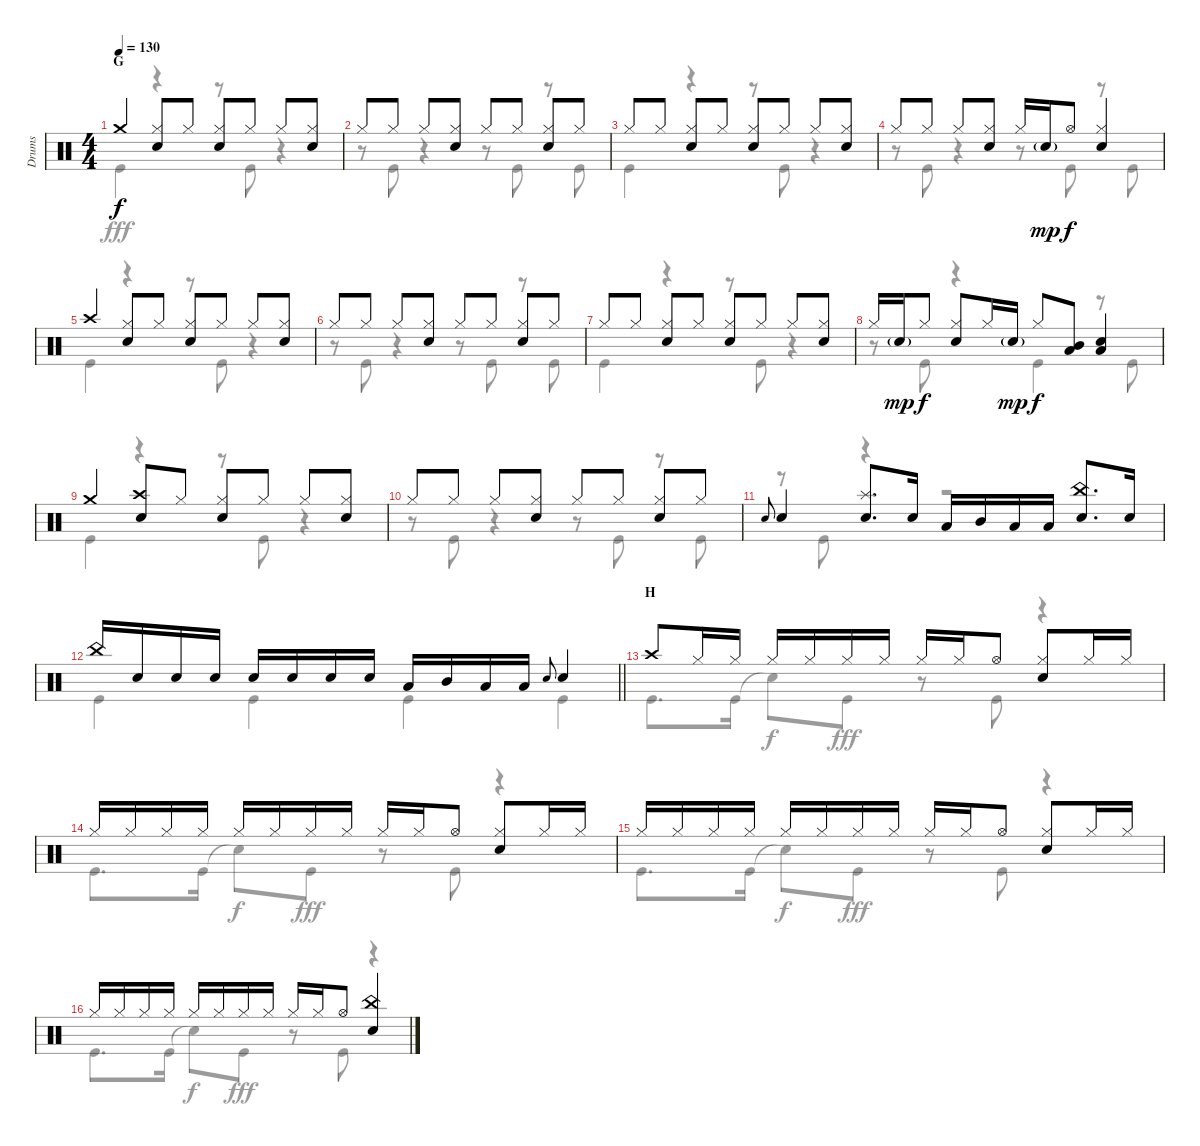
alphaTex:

\track ("Drums" "Drums") {instrument percussion}
\staff {score}
\articulation defaults
\voice
\ts (4 4)
\section ("" "G")
\tempo 130
\clef neutral
\ks c "Crash medium (hit)".4{dy f}
("Hi-Hat (closed)" "Snare (hit) 2").8 "Hi-Hat (closed)".8 ("Hi-Hat (closed)" "Snare (hit) 2").8 "Hi-Hat (closed)".8 "Hi-Hat (closed)".8 ("Hi-Hat (closed)" "Snare (hit) 2").8 |
"Hi-Hat (closed)".8 "Hi-Hat (closed)".8 "Hi-Hat (closed)".8 ("Hi-Hat (closed)" "Snare (hit) 2").8 "Hi-Hat (closed)".8 "Hi-Hat (closed)".8 ("Hi-Hat (closed)" "Snare (hit) 2").8 "Hi-Hat (closed)".8 |
"Hi-Hat (closed)".8 "Hi-Hat (closed)".8 ("Hi-Hat (closed)" "Snare (hit) 2").8 "Hi-Hat (closed)".8 ("Hi-Hat (closed)" "Snare (hit) 2").8 "Hi-Hat (closed)".8 "Hi-Hat (closed)".8 ("Hi-Hat (closed)" "Snare (hit) 2").8 |
"Hi-Hat (closed)".8 "Hi-Hat (closed)".8 "Hi-Hat (closed)".8 ("Hi-Hat (closed)" "Snare (hit) 2").8 "Hi-Hat (closed)".16 "Snare (hit) 2"{g}.16{dy mp} "Hi-Hat (open)".8{dy f} ("Hi-Hat (closed)" "Snare (hit) 2").4 |
"Crash high (hit)".4 ("Hi-Hat (closed)" "Snare (hit) 2").8 "Hi-Hat (closed)".8 ("Hi-Hat (closed)" "Snare (hit) 2").8 "Hi-Hat (closed)".8 "Hi-Hat (closed)".8 ("Hi-Hat (closed)" "Snare (hit) 2").8 |
"Hi-Hat (closed)".8 "Hi-Hat (closed)".8 "Hi-Hat (closed)".8 ("Hi-Hat (closed)" "Snare (hit) 2").8 "Hi-Hat (closed)".8 "Hi-Hat (closed)".8 ("Hi-Hat (closed)" "Snare (hit) 2").8 "Hi-Hat (closed)".8 |
"Hi-Hat (closed)".8 "Hi-Hat (closed)".8 ("Hi-Hat (closed)" "Snare (hit) 2").8 "Hi-Hat (closed)".8 ("Hi-Hat (closed)" "Snare (hit) 2").8 "Hi-Hat (closed)".8 "Hi-Hat (closed)".8 ("Hi-Hat (closed)" "Snare (hit) 2").8 |
"Hi-Hat (closed)".16 "Snare (hit) 2"{g}.16{dy mp} "Hi-Hat (closed)".8{dy f} ("Hi-Hat (closed)" "Snare (hit) 2").8 "Hi-Hat (closed)".16 "Snare (hit) 2"{g}.16{dy mp} "Hi-Hat (closed)".8{dy f} ("Mid Tom (hit)" "Low Tom (hit)").8 ("Low Tom (hit)" "Snare (hit) 2").4 |
"Crash medium (hit)".4 ("Crash high (hit)" "Snare (hit) 2").8 "Hi-Hat (closed)".8 ("Hi-Hat (closed)" "Snare (hit) 2").8 "Hi-Hat (closed)".8 "Hi-Hat (closed)".8 ("Hi-Hat (closed)" "Snare (hit) 2").8 |
"Hi-Hat (closed)".8 "Hi-Hat (closed)".8 "Hi-Hat (closed)".8 ("Hi-Hat (closed)" "Snare (hit) 2").8 "Hi-Hat (closed)".8 "Hi-Hat (closed)".8 ("Hi-Hat (closed)" "Snare (hit) 2").8 "Hi-Hat (closed)".8 |
"Snare (hit) 2".8{gr onbeat} "Snare (hit) 2".4 ("Splash (hit)" "Snare (hit) 2").8{d} "Snare (hit) 2".16 "Low Tom (hit)".16 "Mid Tom (hit)".16 "Low Tom (hit)".16 "Low Tom (hit)".16 ("China (hit)" "Snare (hit) 2").8{d} "Snare (hit) 2".16 |
\barLineRight lightlight "China (hit)".16 "Snare (hit) 2".16 "Snare (hit) 2".16 "Snare (hit) 2".16 "Snare (hit) 2".16 "Snare (hit) 2".16 "Snare (hit) 2".16 "Snare (hit) 2".16 "Low Tom (hit)".16 "Mid Tom (hit)".16 "Low Tom (hit)".16 "Low Tom (hit)".16 "Snare (hit) 2".8{gr onbeat} "Snare (hit) 2".4
|
\section ("" "H")
"Crash high (hit)".8 "Hi-Hat (closed)".16 "Hi-Hat (closed)".16 "Hi-Hat (closed)".16 "Hi-Hat (closed)".16 "Hi-Hat (closed)".16 "Hi-Hat (closed)".16 "Hi-Hat (closed)".16 "Hi-Hat (closed)".16 "Hi-Hat (open)".8 ("Hi-Hat (closed)" "Snare (hit) 2").8 "Hi-Hat (closed)".16 "Hi-Hat (closed)".16 |
"Hi-Hat (closed)".16 "Hi-Hat (closed)".16 "Hi-Hat (closed)".16 "Hi-Hat (closed)".16 "Hi-Hat (closed)".16 "Hi-Hat (closed)".16 "Hi-Hat (closed)".16 "Hi-Hat (closed)".16 "Hi-Hat (closed)".16 "Hi-Hat (closed)".16 "Hi-Hat (open)".8 ("Hi-Hat (closed)" "Snare (hit) 2").8 "Hi-Hat (closed)".16 "Hi-Hat (closed)".16 |
"Hi-Hat (closed)".16 "Hi-Hat (closed)".16 "Hi-Hat (closed)".16 "Hi-Hat (closed)".16 "Hi-Hat (closed)".16 "Hi-Hat (closed)".16 "Hi-Hat (closed)".16 "Hi-Hat (closed)".16 "Hi-Hat (closed)".16 "Hi-Hat (closed)".16 "Hi-Hat (open)".8 ("Hi-Hat (closed)" "Snare (hit) 2").8 "Hi-Hat (closed)".16 "Hi-Hat (closed)".16 |
"Hi-Hat (closed)".16 "Hi-Hat (closed)".16 "Hi-Hat (closed)".16 "Hi-Hat (closed)".16 "Hi-Hat (closed)".16 "Hi-Hat (closed)".16 "Hi-Hat (closed)".16 "Hi-Hat (closed)".16 "Hi-Hat (closed)".16 "Hi-Hat (closed)".16 "Hi-Hat (open)".8 ("China (hit)" "Snare (hit) 2").4
\voice
\clef neutral
\ottava regular
\simile none
\ks c "Kick (hit)".4{dy fff}
r.4 r.8 "Kick (hit)".8 r.4 |
r.8 "Kick (hit)".8 r.4 r.8 "Kick (hit)".8 r.8 "Kick (hit)".8 |
"Kick (hit)".4 r.4 r.8 "Kick (hit)".8 r.4 |
r.8 "Kick (hit)".8 r.4 r.8 "Kick (hit)".8 r.8 "Kick (hit)".8 |
"Kick (hit)".4 r.4 r.8 "Kick (hit)".8 r.4 |
r.8 "Kick (hit)".8 r.4 r.8 "Kick (hit)".8 r.8 "Kick (hit)".8 |
"Kick (hit)".4 r.4 r.8 "Kick (hit)".8 r.4 |
r.8 "Kick (hit)".8 r.4 "Kick (hit)".4 r.8 "Kick (hit)".8 |
"Kick (hit)".4 r.4 r.8 "Kick (hit)".8 r.4 |
r.8 "Kick (hit)".8 r.4 r.8 "Kick (hit)".8 r.8 "Kick (hit)".8 |
r.8 "Kick (hit)".8 r.4 r.2 |
\barLineRight lightlight "Kick (hit)".4 "Kick (hit)".4 "Kick (hit)".4 "Kick (hit)".4
|
"Kick (hit)".8{d} "Kick (hit)".16 "Snare (hit)"{t}.8{dy f} "Kick (hit)".8{dy fff} r.8 "Kick (hit)".8 r.4 |
"Kick (hit)".8{d} "Kick (hit)".16 "Snare (hit)"{t}.8{dy f} "Kick (hit)".8{dy fff} r.8 "Kick (hit)".8 r.4 |
"Kick (hit)".8{d} "Kick (hit)".16 "Snare (hit)"{t}.8{dy f} "Kick (hit)".8{dy fff} r.8 "Kick (hit)".8 r.4 |
"Kick (hit)".8{d} "Kick (hit)".16 "Snare (hit)"{t}.8{dy f} "Kick (hit)".8{dy fff} r.8 "Kick (hit)".8 r.4
